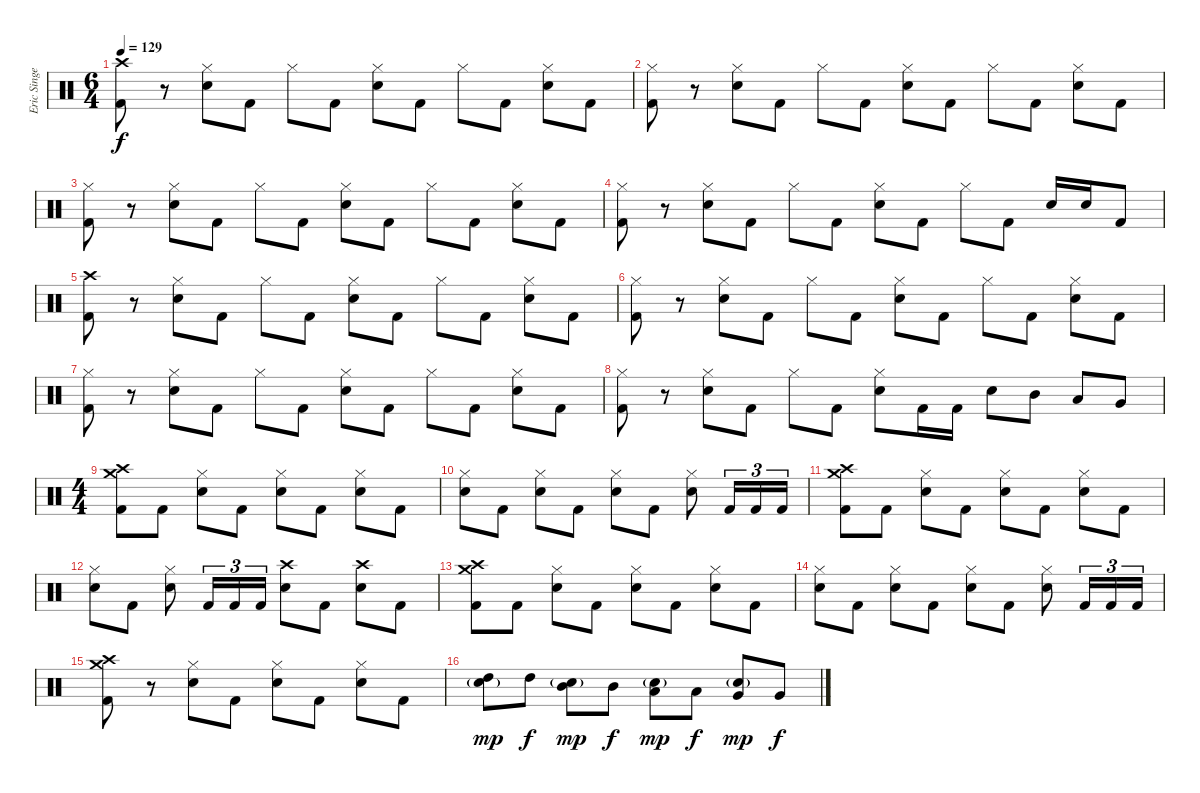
\track ("Eric Singer" "Eric Singe") {instrument percussion}
\staff {score}
\articulation defaults
\ts (6 4)
\tempo 129
\clef neutral
\ks c
("Crash high (hit)" "Kick (hit) 2").8{dy f} r.8 ("Hi-Hat (closed)" "Electric Snare (hit)").8 "Kick (hit) 2".8 "Hi-Hat (closed)".8 "Kick (hit) 2".8 ("Hi-Hat (closed)" "Electric Snare (hit)").8 "Kick (hit) 2".8 "Hi-Hat (closed)".8 "Kick (hit) 2".8 ("Hi-Hat (closed)" "Electric Snare (hit)").8 "Kick (hit) 2".8 |
("Hi-Hat (closed)" "Kick (hit) 2").8 r.8 ("Hi-Hat (closed)" "Electric Snare (hit)").8 "Kick (hit) 2".8 "Hi-Hat (closed)".8 "Kick (hit) 2".8 ("Hi-Hat (closed)" "Electric Snare (hit)").8 "Kick (hit) 2".8 "Hi-Hat (closed)".8 "Kick (hit) 2".8 ("Hi-Hat (closed)" "Electric Snare (hit)").8 "Kick (hit) 2".8 |
("Hi-Hat (closed)" "Kick (hit) 2").8 r.8 ("Hi-Hat (closed)" "Electric Snare (hit)").8 "Kick (hit) 2".8 "Hi-Hat (closed)".8 "Kick (hit) 2".8 ("Hi-Hat (closed)" "Electric Snare (hit)").8 "Kick (hit) 2".8 "Hi-Hat (closed)".8 "Kick (hit) 2".8 ("Hi-Hat (closed)" "Electric Snare (hit)").8 "Kick (hit) 2".8 |
("Hi-Hat (closed)" "Kick (hit) 2").8 r.8 ("Hi-Hat (closed)" "Electric Snare (hit)").8 "Kick (hit) 2".8 "Hi-Hat (closed)".8 "Kick (hit) 2".8 ("Hi-Hat (closed)" "Electric Snare (hit)").8 "Kick (hit) 2".8 "Hi-Hat (closed)".8 "Kick (hit) 2".8 "Electric Snare (hit)".16 "Electric Snare (hit)".16 "Kick (hit) 2".8 |
("Crash high (hit)" "Kick (hit) 2").8 r.8 ("Hi-Hat (closed)" "Electric Snare (hit)").8 "Kick (hit) 2".8 "Hi-Hat (closed)".8 "Kick (hit) 2".8 ("Hi-Hat (closed)" "Electric Snare (hit)").8 "Kick (hit) 2".8 "Hi-Hat (closed)".8 "Kick (hit) 2".8 ("Hi-Hat (closed)" "Electric Snare (hit)").8 "Kick (hit) 2".8 |
("Hi-Hat (closed)" "Kick (hit) 2").8 r.8 ("Hi-Hat (closed)" "Electric Snare (hit)").8 "Kick (hit) 2".8 "Hi-Hat (closed)".8 "Kick (hit) 2".8 ("Hi-Hat (closed)" "Electric Snare (hit)").8 "Kick (hit) 2".8 "Hi-Hat (closed)".8 "Kick (hit) 2".8 ("Hi-Hat (closed)" "Electric Snare (hit)").8 "Kick (hit) 2".8 |
("Hi-Hat (closed)" "Kick (hit) 2").8 r.8 ("Hi-Hat (closed)" "Electric Snare (hit)").8 "Kick (hit) 2".8 "Hi-Hat (closed)".8 "Kick (hit) 2".8 ("Hi-Hat (closed)" "Electric Snare (hit)").8 "Kick (hit) 2".8 "Hi-Hat (closed)".8 "Kick (hit) 2".8 ("Hi-Hat (closed)" "Electric Snare (hit)").8 "Kick (hit) 2".8 |
("Hi-Hat (closed)" "Kick (hit) 2").8 r.8 ("Hi-Hat (closed)" "Electric Snare (hit)").8 "Kick (hit) 2".8 "Hi-Hat (closed)".8 "Kick (hit) 2".8 ("Hi-Hat (closed)" "Electric Snare (hit)").8 "Kick (hit) 2".16 "Kick (hit) 2".16 "Electric Snare (hit)".8 "Mid Tom (hit)".8 "Low Tom (hit)".8 "Very Low Tom (hit)".8 |
\ts (4 4)
("Crash high (hit)" "Crash medium (hit)" "Kick (hit) 2").8 "Kick (hit) 2".8 ("Hi-Hat (closed)" "Electric Snare (hit)").8 "Kick (hit) 2".8 ("Hi-Hat (closed)" "Electric Snare (hit)").8 "Kick (hit) 2".8 ("Hi-Hat (closed)" "Electric Snare (hit)").8 "Kick (hit) 2".8 |
("Hi-Hat (closed)" "Electric Snare (hit)").8 "Kick (hit) 2".8 ("Hi-Hat (closed)" "Electric Snare (hit)").8 "Kick (hit) 2".8 ("Hi-Hat (closed)" "Electric Snare (hit)").8 "Kick (hit) 2".8 ("Hi-Hat (closed)" "Electric Snare (hit)").8 "Kick (hit) 2".16{tu (3 2)} "Kick (hit) 2".16{tu (3 2)} "Kick (hit) 2".16{tu (3 2)} |
("Crash high (hit)" "Crash medium (hit)" "Kick (hit) 2").8 "Kick (hit) 2".8 ("Hi-Hat (closed)" "Electric Snare (hit)").8 "Kick (hit) 2".8 ("Hi-Hat (closed)" "Electric Snare (hit)").8 "Kick (hit) 2".8 ("Hi-Hat (closed)" "Electric Snare (hit)").8 "Kick (hit) 2".8 |
("Hi-Hat (closed)" "Electric Snare (hit)").8 "Kick (hit) 2".8 ("Hi-Hat (closed)" "Electric Snare (hit)").8 "Kick (hit) 2".16{tu (3 2)} "Kick (hit) 2".16{tu (3 2)} "Kick (hit) 2".16{tu (3 2)} ("Crash high (hit)" "Electric Snare (hit)").8 "Kick (hit) 2".8 ("Crash high (hit)" "Electric Snare (hit)").8 "Kick (hit) 2".8 |
("Crash high (hit)" "Crash medium (hit)" "Kick (hit) 2").8 "Kick (hit) 2".8 ("Hi-Hat (closed)" "Electric Snare (hit)").8 "Kick (hit) 2".8 ("Hi-Hat (closed)" "Electric Snare (hit)").8 "Kick (hit) 2".8 ("Hi-Hat (closed)" "Electric Snare (hit)").8 "Kick (hit) 2".8 |
("Hi-Hat (closed)" "Electric Snare (hit)").8 "Kick (hit) 2".8 ("Hi-Hat (closed)" "Electric Snare (hit)").8 "Kick (hit) 2".8 ("Hi-Hat (closed)" "Electric Snare (hit)").8 "Kick (hit) 2".8 ("Hi-Hat (closed)" "Electric Snare (hit)").8 "Kick (hit) 2".16{tu (3 2)} "Kick (hit) 2".16{tu (3 2)} "Kick (hit) 2".16{tu (3 2)} |
("Crash high (hit)" "Crash medium (hit)" "Kick (hit) 2").8 r.8 ("Hi-Hat (closed)" "Electric Snare (hit)").8 "Kick (hit) 2".8 ("Hi-Hat (closed)" "Electric Snare (hit)").8 "Kick (hit) 2".8 ("Hi-Hat (closed)" "Electric Snare (hit)").8 "Kick (hit) 2".8 |
("High Tom (hit)" "Electric Snare (hit)"{g}).8{dy mp} "High Tom (hit)".8{dy f} ("Mid Tom (hit)" "Electric Snare (hit)"{g}).8{dy mp} "Mid Tom (hit)".8{dy f} ("Low Tom (hit)" "Electric Snare (hit)"{g}).8{dy mp} "Low Tom (hit)".8{dy f} ("Very Low Tom (hit)" "Electric Snare (hit)"{g}).8{dy mp} "Very Low Tom (hit)".8{dy f}
